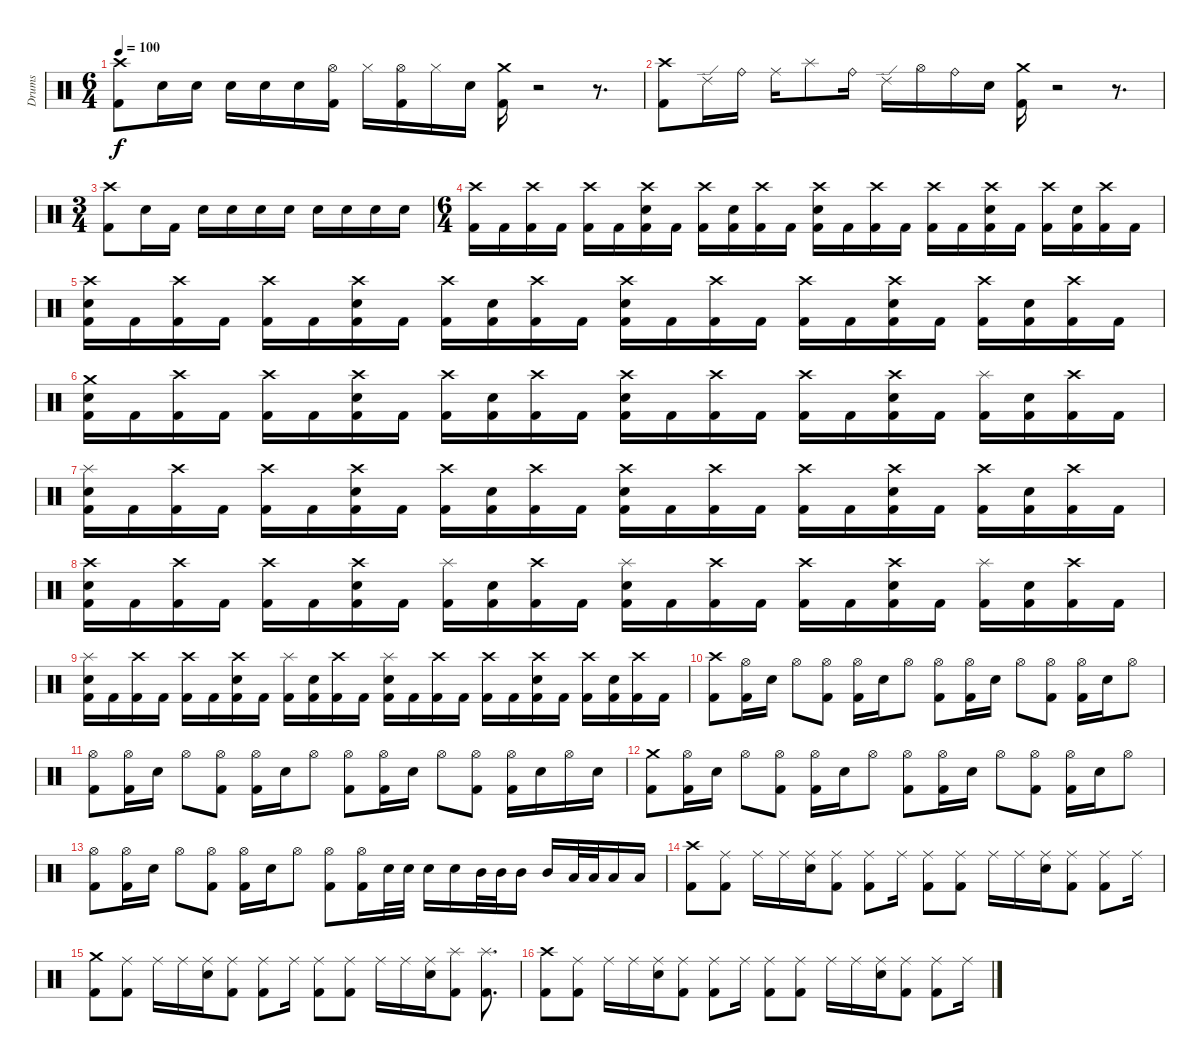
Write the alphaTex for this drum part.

\track ("Drums" "Drums") {instrument percussion}
\staff {score}
\articulation defaults
\ts (6 4)
\tempo 100
\clef neutral
\ks c
("Crash high (hit)" "Kick (hit) 2").8{dy f volume 12} "Electric Snare (hit)".16 "Electric Snare (hit)".16 "Electric Snare (hit)".16 "Electric Snare (hit)".16 "Electric Snare (hit)".16 ("Hi-Hat (open)" "Kick (hit) 2").16 "Hi-Hat (closed)".16 ("Hi-Hat (open)" "Kick (hit) 2").16 "Hi-Hat (closed)".16 "Electric Snare (hit)".16 ("Crash medium (hit)" "Kick (hit) 2").16 r.2{volume 0} r.8{d} |
("Crash high (hit)" "Kick (hit) 2").8{volume 12} "Ride (edge) 2".16 "Ride (bell)".16 "Ride (middle)".16 "Splash (hit)".8 "Ride (bell)".16 "Ride (edge) 2".16 "Hi-Hat (open)".16 "Ride (bell)".16 "Electric Snare (hit)".16 ("Crash medium (hit)" "Kick (hit) 2").16 r.2{volume 0} r.8{d} |
\ts (3 4)
("Crash high (hit)" "Kick (hit) 2").8{volume 12} "Electric Snare (hit)".16 "Kick (hit) 2".16 "Electric Snare (hit)".16 "Electric Snare (hit)".16 "Electric Snare (hit)".16 "Electric Snare (hit)".16 "Electric Snare (hit)".16 "Electric Snare (hit)".16 "Electric Snare (hit)".16 "Electric Snare (hit)".16 |
\ts (6 4)
("Crash high (hit)" "Kick (hit) 2").16 "Kick (hit) 2".16 ("Crash high (hit)" "Kick (hit) 2").16 "Kick (hit) 2".16 ("Crash high (hit)" "Kick (hit) 2").16 "Kick (hit) 2".16 ("Crash high (hit)" "Electric Snare (hit)" "Kick (hit) 2").16 "Kick (hit) 2".16 ("Crash high (hit)" "Kick (hit) 2").16 ("Electric Snare (hit)" "Kick (hit) 2").16 ("Crash high (hit)" "Kick (hit) 2").16 "Kick (hit) 2".16 ("Crash high (hit)" "Electric Snare (hit)" "Kick (hit) 2").16 "Kick (hit) 2".16 ("Crash high (hit)" "Kick (hit) 2").16 "Kick (hit) 2".16 ("Crash high (hit)" "Kick (hit) 2").16 "Kick (hit) 2".16 ("Crash high (hit)" "Electric Snare (hit)" "Kick (hit) 2").16 "Kick (hit) 2".16 ("Crash high (hit)" "Kick (hit) 2").16 ("Electric Snare (hit)" "Kick (hit) 2").16 ("Crash high (hit)" "Kick (hit) 2").16 "Kick (hit) 2".16 |
("Crash high (hit)" "Electric Snare (hit)" "Kick (hit) 2").16 "Kick (hit) 2".16 ("Crash high (hit)" "Kick (hit) 2").16 "Kick (hit) 2".16 ("Crash high (hit)" "Kick (hit) 2").16 "Kick (hit) 2".16 ("Crash high (hit)" "Electric Snare (hit)" "Kick (hit) 2").16 "Kick (hit) 2".16 ("Crash high (hit)" "Kick (hit) 2").16 ("Electric Snare (hit)" "Kick (hit) 2").16 ("Crash high (hit)" "Kick (hit) 2").16 "Kick (hit) 2".16 ("Crash high (hit)" "Electric Snare (hit)" "Kick (hit) 2").16 "Kick (hit) 2".16 ("Crash high (hit)" "Kick (hit) 2").16 "Kick (hit) 2".16 ("Crash high (hit)" "Kick (hit) 2").16 "Kick (hit) 2".16 ("Crash high (hit)" "Electric Snare (hit)" "Kick (hit) 2").16 "Kick (hit) 2".16 ("Crash high (hit)" "Kick (hit) 2").16 ("Electric Snare (hit)" "Kick (hit) 2").16 ("Crash high (hit)" "Kick (hit) 2").16 "Kick (hit) 2".16 |
("Crash medium (hit)" "Electric Snare (hit)" "Kick (hit) 2").16 "Kick (hit) 2".16 ("Crash high (hit)" "Kick (hit) 2").16 "Kick (hit) 2".16 ("Crash high (hit)" "Kick (hit) 2").16 "Kick (hit) 2".16 ("Crash high (hit)" "Electric Snare (hit)" "Kick (hit) 2").16 "Kick (hit) 2".16 ("Crash high (hit)" "Kick (hit) 2").16 ("Electric Snare (hit)" "Kick (hit) 2").16 ("Crash high (hit)" "Kick (hit) 2").16 "Kick (hit) 2".16 ("Crash high (hit)" "Electric Snare (hit)" "Kick (hit) 2").16 "Kick (hit) 2".16 ("Crash high (hit)" "Kick (hit) 2").16 "Kick (hit) 2".16 ("Crash high (hit)" "Kick (hit) 2").16 "Kick (hit) 2".16 ("Crash high (hit)" "Electric Snare (hit)" "Kick (hit) 2").16 "Kick (hit) 2".16 ("Splash (hit)" "Kick (hit) 2").16 ("Electric Snare (hit)" "Kick (hit) 2").16 ("Crash high (hit)" "Kick (hit) 2").16 "Kick (hit) 2".16 |
("Splash (hit)" "Electric Snare (hit)" "Kick (hit) 2").16 "Kick (hit) 2".16 ("Crash high (hit)" "Kick (hit) 2").16 "Kick (hit) 2".16 ("Crash high (hit)" "Kick (hit) 2").16 "Kick (hit) 2".16 ("Crash high (hit)" "Electric Snare (hit)" "Kick (hit) 2").16 "Kick (hit) 2".16 ("Crash high (hit)" "Kick (hit) 2").16 ("Electric Snare (hit)" "Kick (hit) 2").16 ("Crash high (hit)" "Kick (hit) 2").16 "Kick (hit) 2".16 ("Crash high (hit)" "Electric Snare (hit)" "Kick (hit) 2").16 "Kick (hit) 2".16 ("Crash high (hit)" "Kick (hit) 2").16 "Kick (hit) 2".16 ("Crash high (hit)" "Kick (hit) 2").16 "Kick (hit) 2".16 ("Crash high (hit)" "Electric Snare (hit)" "Kick (hit) 2").16 "Kick (hit) 2".16 ("Crash high (hit)" "Kick (hit) 2").16 ("Electric Snare (hit)" "Kick (hit) 2").16 ("Crash high (hit)" "Kick (hit) 2").16 "Kick (hit) 2".16 |
("Crash high (hit)" "Electric Snare (hit)" "Kick (hit) 2").16 "Kick (hit) 2".16 ("Crash high (hit)" "Kick (hit) 2").16 "Kick (hit) 2".16 ("Crash high (hit)" "Kick (hit) 2").16 "Kick (hit) 2".16 ("Crash high (hit)" "Electric Snare (hit)" "Kick (hit) 2").16 "Kick (hit) 2".16 ("Splash (hit)" "Kick (hit) 2").16 ("Electric Snare (hit)" "Kick (hit) 2").16 ("Crash high (hit)" "Kick (hit) 2").16 "Kick (hit) 2".16 ("Splash (hit)" "Electric Snare (hit)" "Kick (hit) 2").16 "Kick (hit) 2".16 ("Crash high (hit)" "Kick (hit) 2").16 "Kick (hit) 2".16 ("Crash high (hit)" "Kick (hit) 2").16 "Kick (hit) 2".16 ("Crash high (hit)" "Electric Snare (hit)" "Kick (hit) 2").16 "Kick (hit) 2".16 ("Splash (hit)" "Kick (hit) 2").16 ("Electric Snare (hit)" "Kick (hit) 2").16 ("Crash high (hit)" "Kick (hit) 2").16 "Kick (hit) 2".16 |
("Splash (hit)" "Electric Snare (hit)" "Kick (hit) 2").16 "Kick (hit) 2".16 ("Crash high (hit)" "Kick (hit) 2").16 "Kick (hit) 2".16 ("Crash high (hit)" "Kick (hit) 2").16 "Kick (hit) 2".16 ("Crash high (hit)" "Electric Snare (hit)" "Kick (hit) 2").16 "Kick (hit) 2".16 ("Splash (hit)" "Kick (hit) 2").16 ("Electric Snare (hit)" "Kick (hit) 2").16 ("Crash high (hit)" "Kick (hit) 2").16 "Kick (hit) 2".16 ("Splash (hit)" "Electric Snare (hit)" "Kick (hit) 2").16 "Kick (hit) 2".16 ("Crash high (hit)" "Kick (hit) 2").16 "Kick (hit) 2".16 ("Crash high (hit)" "Kick (hit) 2").16 "Kick (hit) 2".16 ("Crash high (hit)" "Electric Snare (hit)" "Kick (hit) 2").16 "Kick (hit) 2".16 ("Crash high (hit)" "Kick (hit) 2").16 ("Electric Snare (hit)" "Kick (hit) 2").16 ("Crash high (hit)" "Kick (hit) 2").16 "Kick (hit) 2".16 |
("Crash high (hit)" "Kick (hit) 2").8 ("Hi-Hat (open)" "Kick (hit) 2").16 "Electric Snare (hit)".16 "Hi-Hat (open)".8 ("Hi-Hat (open)" "Kick (hit) 2").8 ("Hi-Hat (open)" "Kick (hit) 2").16 "Electric Snare (hit)".16 "Hi-Hat (open)".8 ("Hi-Hat (open)" "Kick (hit) 2").8 ("Hi-Hat (open)" "Kick (hit) 2").16 "Electric Snare (hit)".16 "Hi-Hat (open)".8 ("Hi-Hat (open)" "Kick (hit) 2").8 ("Hi-Hat (open)" "Kick (hit) 2").16 "Electric Snare (hit)".16 "Hi-Hat (open)".8 |
("Hi-Hat (open)" "Kick (hit) 2").8 ("Hi-Hat (open)" "Kick (hit) 2").16 "Electric Snare (hit)".16 "Hi-Hat (open)".8 ("Hi-Hat (open)" "Kick (hit) 2").8 ("Hi-Hat (open)" "Kick (hit) 2").16 "Electric Snare (hit)".16 "Hi-Hat (open)".8 ("Hi-Hat (open)" "Kick (hit) 2").8 ("Hi-Hat (open)" "Kick (hit) 2").16 "Electric Snare (hit)".16 "Hi-Hat (open)".8 ("Hi-Hat (open)" "Kick (hit) 2").8 ("Hi-Hat (open)" "Kick (hit) 2").16 "Electric Snare (hit)".16 "Hi-Hat (open)".16 "Electric Snare (hit)".16 |
("Crash medium (hit)" "Kick (hit) 2").8 ("Hi-Hat (open)" "Kick (hit) 2").16 "Electric Snare (hit)".16 "Hi-Hat (open)".8 ("Hi-Hat (open)" "Kick (hit) 2").8 ("Hi-Hat (open)" "Kick (hit) 2").16 "Electric Snare (hit)".16 "Hi-Hat (open)".8 ("Hi-Hat (open)" "Kick (hit) 2").8 ("Hi-Hat (open)" "Kick (hit) 2").16 "Electric Snare (hit)".16 "Hi-Hat (open)".8 ("Hi-Hat (open)" "Kick (hit) 2").8 ("Hi-Hat (open)" "Kick (hit) 2").16 "Electric Snare (hit)".16 "Hi-Hat (open)".8 |
("Hi-Hat (open)" "Kick (hit) 2").8 ("Hi-Hat (open)" "Kick (hit) 2").16 "Electric Snare (hit)".16 "Hi-Hat (open)".8 ("Hi-Hat (open)" "Kick (hit) 2").8 ("Hi-Hat (open)" "Kick (hit) 2").16 "Electric Snare (hit)".16 "Hi-Hat (open)".8 ("Hi-Hat (open)" "Kick (hit) 2").8 ("Hi-Hat (open)" "Kick (hit) 2").16 "Electric Snare (hit)".32 "Electric Snare (hit)".32 "Electric Snare (hit)".16 "Electric Snare (hit)".16 "Mid Tom (hit)".32 "Mid Tom (hit)".32 "Mid Tom (hit)".16 "Mid Tom (hit)".16 "Low Tom (hit)".32 "Low Tom (hit)".32 "Low Tom (hit)".16 "Low Tom (hit)".16 |
("Crash high (hit)" "Kick (hit) 2").8 ("Ride (middle)" "Kick (hit) 2").8 "Ride (middle)".16 "Ride (middle)".16 ("Ride (middle)" "Electric Snare (hit)").16 ("Ride (middle)" "Kick (hit) 2").8 ("Ride (middle)" "Kick (hit) 2").8 "Ride (middle)".16 ("Ride (middle)" "Kick (hit) 2").8 ("Ride (middle)" "Kick (hit) 2").8 "Ride (middle)".16 "Ride (middle)".16 ("Ride (middle)" "Electric Snare (hit)").16 ("Ride (middle)" "Kick (hit) 2").8 ("Ride (middle)" "Kick (hit) 2").8 "Ride (middle)".16 |
("Crash medium (hit)" "Kick (hit) 2").8 ("Ride (middle)" "Kick (hit) 2").8 "Ride (middle)".16 "Ride (middle)".16 ("Ride (middle)" "Electric Snare (hit)").16 ("Ride (middle)" "Kick (hit) 2").8 ("Ride (middle)" "Kick (hit) 2").8 "Ride (middle)".16 ("Ride (middle)" "Kick (hit) 2").8 ("Ride (middle)" "Kick (hit) 2").8 "Ride (middle)".16 "Ride (middle)".16 ("Ride (middle)" "Electric Snare (hit)").16 ("Splash (hit)" "Kick (hit) 2").8 ("Splash (hit)" "Kick (hit) 2").8{d} |
("Crash high (hit)" "Kick (hit) 2").8 ("Ride (middle)" "Kick (hit) 2").8 "Ride (middle)".16 "Ride (middle)".16 ("Ride (middle)" "Electric Snare (hit)").16 ("Ride (middle)" "Kick (hit) 2").8 ("Ride (middle)" "Kick (hit) 2").8 "Ride (middle)".16 ("Ride (middle)" "Kick (hit) 2").8 ("Ride (middle)" "Kick (hit) 2").8 "Ride (middle)".16 "Ride (middle)".16 ("Ride (middle)" "Electric Snare (hit)").16 ("Ride (middle)" "Kick (hit) 2").8 ("Ride (middle)" "Kick (hit) 2").8 "Ride (middle)".16
